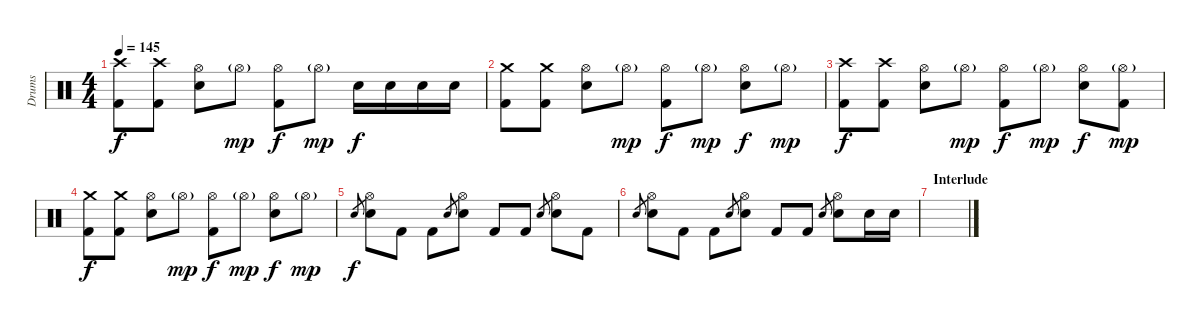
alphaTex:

\track ("Drums" "Drums") {instrument percussion}
\staff {score}
\articulation defaults
\ts (4 4)
\tempo 145
\clef neutral
\ks c
("Crash high (hit)" "Kick (hit) 2").8{dy f} ("Crash high (hit)" "Kick (hit) 2").8 ("Hi-Hat (open)" "Electric Snare (hit)").8 "Hi-Hat (open)"{g}.8{dy mp} ("Hi-Hat (open)" "Kick (hit) 2").8{dy f} "Hi-Hat (open)"{g}.8{dy mp} "Electric Snare (hit)".16{dy f} "Electric Snare (hit)".16 "Electric Snare (hit)".16 "Electric Snare (hit)".16 |
("Crash medium (hit)" "Kick (hit) 2").8 ("Crash medium (hit)" "Kick (hit) 2").8 ("Hi-Hat (open)" "Electric Snare (hit)").8 "Hi-Hat (open)"{g}.8{dy mp} ("Hi-Hat (open)" "Kick (hit) 2").8{dy f} "Hi-Hat (open)"{g}.8{dy mp} ("Hi-Hat (open)" "Electric Snare (hit)").8{dy f} "Hi-Hat (open)"{g}.8{dy mp} |
("Crash high (hit)" "Kick (hit) 2").8{dy f} ("Crash high (hit)" "Kick (hit) 2").8 ("Hi-Hat (open)" "Electric Snare (hit)").8 "Hi-Hat (open)"{g}.8{dy mp} ("Hi-Hat (open)" "Kick (hit) 2").8{dy f} "Hi-Hat (open)"{g}.8{dy mp} ("Hi-Hat (open)" "Electric Snare (hit)").8{dy f} ("Hi-Hat (open)"{g} "Kick (hit) 2").8{dy mp} |
("Crash medium (hit)" "Kick (hit) 2").8{dy f} ("Crash medium (hit)" "Kick (hit) 2").8 ("Hi-Hat (open)" "Electric Snare (hit)").8 "Hi-Hat (open)"{g}.8{dy mp} ("Hi-Hat (open)" "Kick (hit) 2").8{dy f} "Hi-Hat (open)"{g}.8{dy mp} ("Hi-Hat (open)" "Electric Snare (hit)").8{dy f} "Hi-Hat (open)"{g}.8{dy mp} |
"Electric Snare (hit)".8{gr dy f} ("Hi-Hat (open)" "Electric Snare (hit)").8 "Kick (hit) 2".8 "Kick (hit) 2".8 "Electric Snare (hit)".8{gr} ("Hi-Hat (open)" "Electric Snare (hit)").8 "Kick (hit) 2".8 "Kick (hit) 2".8 "Electric Snare (hit)".8{gr} ("Hi-Hat (open)" "Electric Snare (hit)").8 "Kick (hit) 2".8 |
"Electric Snare (hit)".8{gr} ("Hi-Hat (open)" "Electric Snare (hit)").8 "Kick (hit) 2".8 "Kick (hit) 2".8 "Electric Snare (hit)".8{gr} ("Hi-Hat (open)" "Electric Snare (hit)").8 "Kick (hit) 2".8 "Kick (hit) 2".8 "Electric Snare (hit)".8{gr} ("Hi-Hat (open)" "Electric Snare (hit)").8 "Electric Snare (hit)".16 "Electric Snare (hit)".16 |
\section ("" "Interlude")
